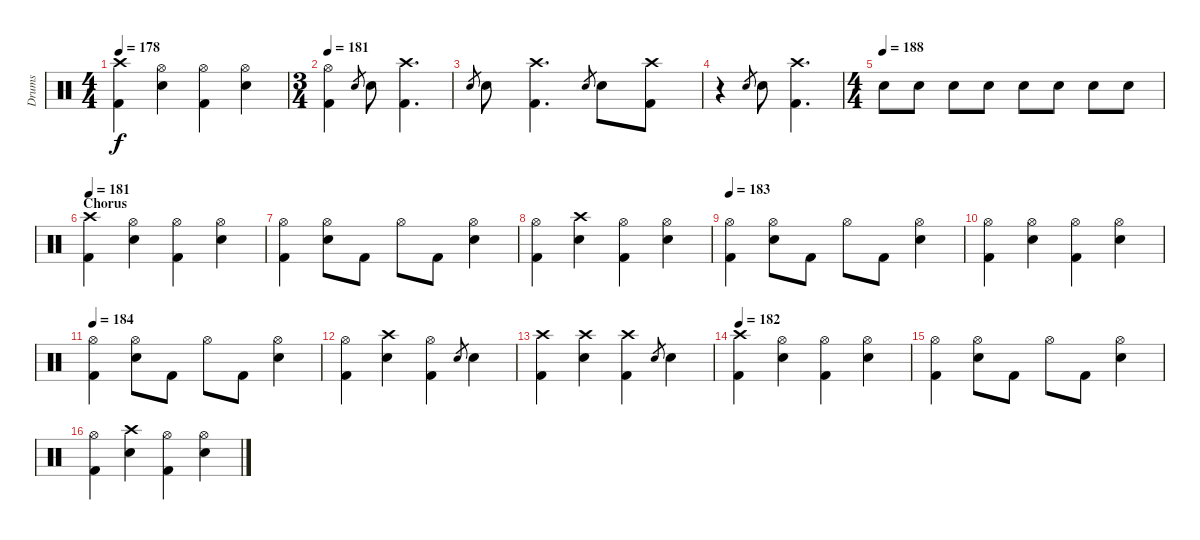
\track ("Drums" "Drums") {instrument percussion}
\staff {score}
\articulation defaults
\ts (4 4)
\tempo 178
\clef neutral
\ks c
("Crash high (hit)" "Kick (hit) 2").4{dy f} ("Snare (hit) 2" "Hi-Hat (open)").4 ("Hi-Hat (open)" "Kick (hit) 2").4 ("Hi-Hat (open)" "Snare (hit) 2").4 |
\ts (3 4)
\tempo 181
("Kick (hit) 2" "Hi-Hat (open)").4 "Snare (hit)".8{gr} "Snare (hit) 2".8 ("Kick (hit) 2" "Crash high (hit)").4{d} |
"Snare (hit)".8{gr} "Snare (hit) 2".8 ("Kick (hit) 2" "Crash high (hit)").4{d} "Snare (hit)".8{gr} "Snare (hit) 2".8 ("Kick (hit) 2" "Crash high (hit)").8 |
r.4 "Snare (hit)".8{gr} "Snare (hit) 2".8 ("Kick (hit) 2" "Crash high (hit)").4{d} |
\ts (4 4)
\tempo (188)
"Snare (hit) 2".8 "Snare (hit) 2".8 "Snare (hit) 2".8 "Snare (hit) 2".8 "Snare (hit) 2".8 "Snare (hit) 2".8 "Snare (hit) 2".8 "Snare (hit) 2".8 |
\section ("" "Chorus")
\tempo 181
("Crash high (hit)" "Kick (hit) 2").4 ("Snare (hit) 2" "Hi-Hat (open)").4 ("Hi-Hat (open)" "Kick (hit) 2").4 ("Hi-Hat (open)" "Snare (hit) 2").4 |
("Hi-Hat (open)" "Kick (hit) 2").4 ("Hi-Hat (open)" "Snare (hit) 2").8 "Kick (hit) 2".8 "Hi-Hat (open)".8 "Kick (hit) 2".8 ("Snare (hit) 2" "Hi-Hat (open)").4 |
("Kick (hit) 2" "Hi-Hat (open)").4 ("Snare (hit) 2" "Crash high (hit)").4 ("Hi-Hat (open)" "Kick (hit) 2").4 ("Hi-Hat (open)" "Snare (hit) 2").4 |
\tempo 183
("Hi-Hat (open)" "Kick (hit) 2").4 ("Hi-Hat (open)" "Snare (hit) 2").8 "Kick (hit) 2".8 "Hi-Hat (open)".8 "Kick (hit) 2".8 ("Snare (hit) 2" "Hi-Hat (open)").4 |
("Kick (hit) 2" "Hi-Hat (open)").4 ("Snare (hit) 2" "Hi-Hat (open)").4 ("Hi-Hat (open)" "Kick (hit) 2").4 ("Hi-Hat (open)" "Snare (hit) 2").4 |
\tempo 184
("Hi-Hat (open)" "Kick (hit) 2").4 ("Hi-Hat (open)" "Snare (hit) 2").8 "Kick (hit) 2".8 "Hi-Hat (open)".8 "Kick (hit) 2".8 ("Snare (hit) 2" "Hi-Hat (open)").4 |
("Kick (hit) 2" "Hi-Hat (open)").4 ("Snare (hit) 2" "Crash high (hit)").4 ("Hi-Hat (open)" "Kick (hit) 2").4 "Snare (hit)".8{gr} "Snare (hit) 2".4 |
("Kick (hit) 2" "Crash high (hit)").4 ("Snare (hit) 2" "Crash high (hit)").4 ("Kick (hit) 2" "Crash high (hit)").4 "Snare (hit)".8{gr} "Snare (hit) 2".4 |
\tempo 182
("Crash high (hit)" "Kick (hit) 2").4 ("Snare (hit) 2" "Hi-Hat (open)").4 ("Hi-Hat (open)" "Kick (hit) 2").4 ("Hi-Hat (open)" "Snare (hit) 2").4 |
("Hi-Hat (open)" "Kick (hit) 2").4 ("Hi-Hat (open)" "Snare (hit) 2").8 "Kick (hit) 2".8 "Hi-Hat (open)".8 "Kick (hit) 2".8 ("Snare (hit) 2" "Hi-Hat (open)").4 |
("Kick (hit) 2" "Hi-Hat (open)").4 ("Snare (hit) 2" "Crash high (hit)").4 ("Hi-Hat (open)" "Kick (hit) 2").4 ("Hi-Hat (open)" "Snare (hit) 2").4
